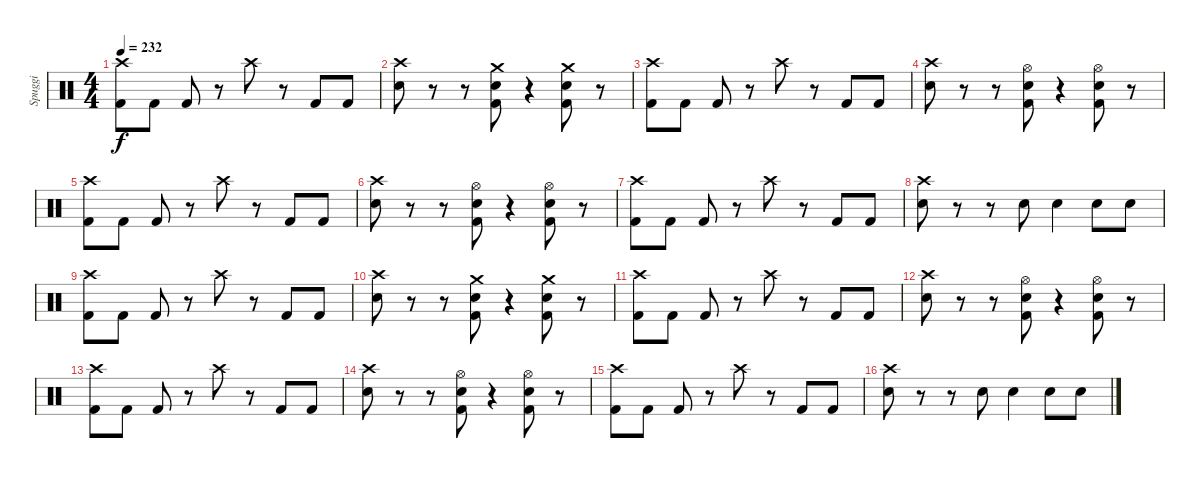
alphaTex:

\track ("Spuggi" "Spuggi") {instrument percussion}
\staff {score}
\articulation defaults
\ts (4 4)
\tempo 232
\clef neutral
\ks c
("Crash high (hit)" "Kick (hit) 2").8{dy f} "Kick (hit) 2".8 "Kick (hit) 2".8 r.8 "Crash high (hit)".8 r.8 "Kick (hit) 2".8 "Kick (hit) 2".8 |
("Crash high (hit)" "Snare (hit) 2").8 r.8 r.8 ("Crash medium (hit)" "Snare (hit) 2" "Kick (hit) 2").8 r.4 ("Crash medium (hit)" "Snare (hit) 2" "Kick (hit) 2").8 r.8 |
("Crash high (hit)" "Kick (hit) 2").8 "Kick (hit) 2".8 "Kick (hit) 2".8 r.8 "Crash high (hit)".8 r.8 "Kick (hit) 2".8 "Kick (hit) 2".8 |
("Crash high (hit)" "Snare (hit) 2").8 r.8 r.8 ("Hi-Hat (open)" "Snare (hit) 2" "Kick (hit) 2").8 r.4 ("Hi-Hat (open)" "Snare (hit) 2" "Kick (hit) 2").8 r.8 |
("Crash high (hit)" "Kick (hit) 2").8 "Kick (hit) 2".8 "Kick (hit) 2".8 r.8 "Crash high (hit)".8 r.8 "Kick (hit) 2".8 "Kick (hit) 2".8 |
("Crash high (hit)" "Snare (hit) 2").8 r.8 r.8 ("Hi-Hat (open)" "Snare (hit) 2" "Kick (hit) 2").8 r.4 ("Hi-Hat (open)" "Snare (hit) 2" "Kick (hit) 2").8 r.8 |
("Crash high (hit)" "Kick (hit) 2").8 "Kick (hit) 2".8 "Kick (hit) 2".8 r.8 "Crash high (hit)".8 r.8 "Kick (hit) 2".8 "Kick (hit) 2".8 |
("Crash high (hit)" "Snare (hit) 2").8 r.8 r.8 "Snare (hit) 2".8 "Snare (hit) 2".4 "Snare (hit) 2".8 "Snare (hit) 2".8 |
("Crash high (hit)" "Kick (hit) 2").8 "Kick (hit) 2".8 "Kick (hit) 2".8 r.8 "Crash high (hit)".8 r.8 "Kick (hit) 2".8 "Kick (hit) 2".8 |
("Crash high (hit)" "Snare (hit) 2").8 r.8 r.8 ("Crash medium (hit)" "Snare (hit) 2" "Kick (hit) 2").8 r.4 ("Crash medium (hit)" "Snare (hit) 2" "Kick (hit) 2").8 r.8 |
("Crash high (hit)" "Kick (hit) 2").8 "Kick (hit) 2".8 "Kick (hit) 2".8 r.8 "Crash high (hit)".8 r.8 "Kick (hit) 2".8 "Kick (hit) 2".8 |
("Crash high (hit)" "Snare (hit) 2").8 r.8 r.8 ("Hi-Hat (open)" "Snare (hit) 2" "Kick (hit) 2").8 r.4 ("Hi-Hat (open)" "Snare (hit) 2" "Kick (hit) 2").8 r.8 |
("Crash high (hit)" "Kick (hit) 2").8 "Kick (hit) 2".8 "Kick (hit) 2".8 r.8 "Crash high (hit)".8 r.8 "Kick (hit) 2".8 "Kick (hit) 2".8 |
("Crash high (hit)" "Snare (hit) 2").8 r.8 r.8 ("Hi-Hat (open)" "Snare (hit) 2" "Kick (hit) 2").8 r.4 ("Hi-Hat (open)" "Snare (hit) 2" "Kick (hit) 2").8 r.8 |
("Crash high (hit)" "Kick (hit) 2").8 "Kick (hit) 2".8 "Kick (hit) 2".8 r.8 "Crash high (hit)".8 r.8 "Kick (hit) 2".8 "Kick (hit) 2".8 |
("Crash high (hit)" "Snare (hit) 2").8 r.8 r.8 "Snare (hit) 2".8 "Snare (hit) 2".4 "Snare (hit) 2".8 "Snare (hit) 2".8
